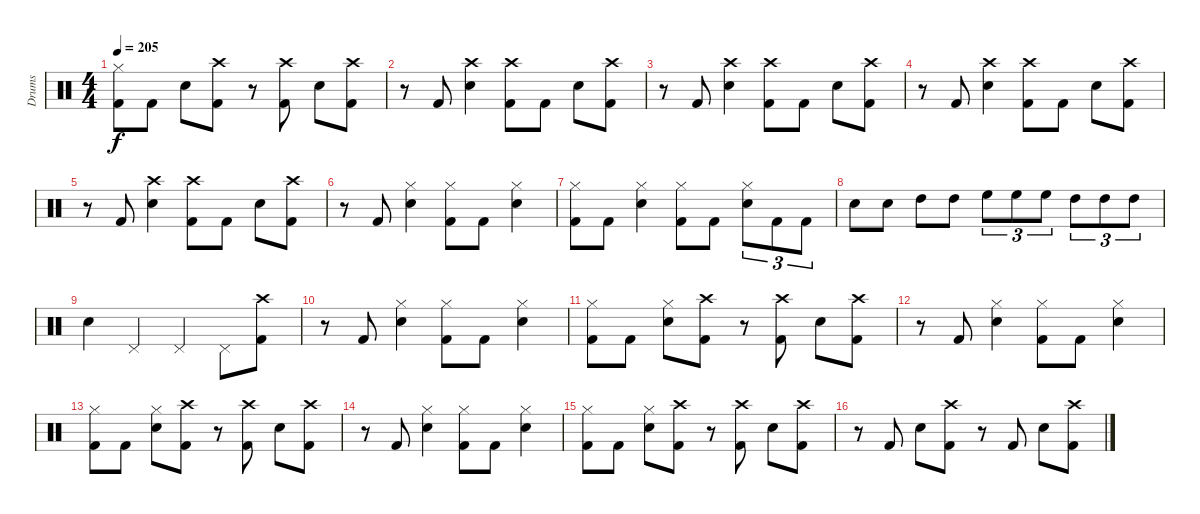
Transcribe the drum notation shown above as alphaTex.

\track ("Drums" "Drums") {instrument percussion}
\staff {score}
\articulation defaults
\ts (4 4)
\tempo 205
\clef neutral
\ks c
("Kick (hit) 2" "Hi-Hat (closed)").8{dy f} "Kick (hit) 2".8 "Snare (hit) 2".8 ("Kick (hit) 2" "Crash high (hit)").8 r.8 ("Kick (hit) 2" "Crash high (hit)").8 "Snare (hit) 2".8 ("Kick (hit) 2" "Crash high (hit)").8 |
r.8 "Kick (hit) 2".8 ("Snare (hit) 2" "Crash high (hit)").4 ("Crash high (hit)" "Kick (hit) 2").8 "Kick (hit) 2".8 "Snare (hit) 2".8 ("Kick (hit) 2" "Crash high (hit)").8 |
r.8 "Kick (hit) 2".8 ("Snare (hit) 2" "Crash high (hit)").4 ("Crash high (hit)" "Kick (hit) 2").8 "Kick (hit) 2".8 "Snare (hit) 2".8 ("Kick (hit) 2" "Crash high (hit)").8 |
r.8 "Kick (hit) 2".8 ("Snare (hit) 2" "Crash high (hit)").4 ("Crash high (hit)" "Kick (hit) 2").8 "Kick (hit) 2".8 "Snare (hit) 2".8 ("Kick (hit) 2" "Crash high (hit)").8 |
r.8 "Kick (hit) 2".8 ("Snare (hit) 2" "Crash high (hit)").4 ("Crash high (hit)" "Kick (hit) 2").8 "Kick (hit) 2".8 "Snare (hit) 2".8 ("Kick (hit) 2" "Crash high (hit)").8 |
r.8 "Kick (hit) 2".8 ("Snare (hit) 2" "Hi-Hat (closed)").4 ("Kick (hit) 2" "Hi-Hat (closed)").8 "Kick (hit) 2".8 ("Hi-Hat (closed)" "Snare (hit) 2").4 |
("Hi-Hat (closed)" "Kick (hit) 2").8 "Kick (hit) 2".8 ("Hi-Hat (closed)" "Snare (hit) 2").4 ("Hi-Hat (closed)" "Kick (hit) 2").8 "Kick (hit) 2".8 ("Hi-Hat (closed)" "Snare (hit) 2").8{tu (3 2)} "Kick (hit) 2".8{tu (3 2)} "Kick (hit) 2".8{tu (3 2)} |
"Snare (hit) 2".8 "Snare (hit) 2".8 "High Tom (hit)".8 "High Tom (hit)".8 "High Floor Tom (hit)".8{tu (3 2)} "High Floor Tom (hit)".8{tu (3 2)} "High Floor Tom (hit)".8{tu (3 2)} "High Tom (hit)".8{tu (3 2)} "High Tom (hit)".8{tu (3 2)} "High Tom (hit)".8{tu (3 2)} |
"Snare (hit) 2".4 "Pedal Hi-Hat (hit)".4 "Pedal Hi-Hat (hit)".4 "Pedal Hi-Hat (hit)".8 ("Kick (hit) 2" "Crash high (hit)").8 |
r.8 "Kick (hit) 2".8 ("Hi-Hat (closed)" "Snare (hit) 2").4 ("Kick (hit) 2" "Hi-Hat (closed)").8 "Kick (hit) 2".8 ("Hi-Hat (closed)" "Snare (hit) 2").4 |
("Hi-Hat (closed)" "Kick (hit) 2").8 "Kick (hit) 2".8 ("Snare (hit) 2" "Hi-Hat (closed)").8 ("Kick (hit) 2" "Crash high (hit)").8 r.8 ("Crash high (hit)" "Kick (hit) 2").8 "Snare (hit) 2".8 ("Crash high (hit)" "Kick (hit) 2").8 |
r.8 "Kick (hit) 2".8 ("Hi-Hat (closed)" "Snare (hit) 2").4 ("Kick (hit) 2" "Hi-Hat (closed)").8 "Kick (hit) 2".8 ("Hi-Hat (closed)" "Snare (hit) 2").4 |
("Hi-Hat (closed)" "Kick (hit) 2").8 "Kick (hit) 2".8 ("Snare (hit) 2" "Hi-Hat (closed)").8 ("Kick (hit) 2" "Crash high (hit)").8 r.8 ("Crash high (hit)" "Kick (hit) 2").8 "Snare (hit) 2".8 ("Crash high (hit)" "Kick (hit) 2").8 |
r.8 "Kick (hit) 2".8 ("Hi-Hat (closed)" "Snare (hit) 2").4 ("Kick (hit) 2" "Hi-Hat (closed)").8 "Kick (hit) 2".8 ("Hi-Hat (closed)" "Snare (hit) 2").4 |
("Hi-Hat (closed)" "Kick (hit) 2").8 "Kick (hit) 2".8 ("Snare (hit) 2" "Hi-Hat (closed)").8 ("Kick (hit) 2" "Crash high (hit)").8 r.8 ("Crash high (hit)" "Kick (hit) 2").8 "Snare (hit) 2".8 ("Crash high (hit)" "Kick (hit) 2").8 |
r.8 "Kick (hit) 2".8 "Snare (hit) 2".8 ("Kick (hit) 2" "Crash high (hit)").8 r.8 "Kick (hit) 2".8 "Snare (hit) 2".8 ("Kick (hit) 2" "Crash high (hit)").8
